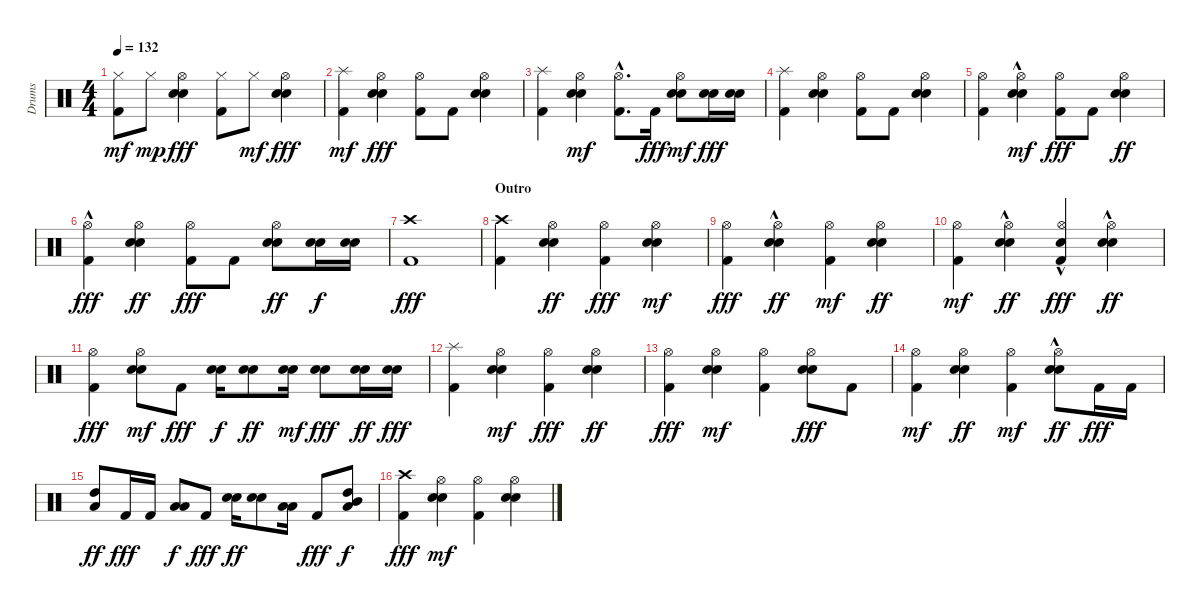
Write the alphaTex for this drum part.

\track ("Drums" "Drums") {instrument percussion}
\staff {score}
\articulation defaults
\ts (4 4)
\tempo 132
\clef neutral
\ks c
("Kick (hit) 2" "Hi-Hat (closed)").8{dy mf} "Hi-Hat (closed)".8{dy mp} ("Hi-Hat (open)" "Snare (hit) 2" "Electric Snare (hit)").4{dy fff} ("Kick (hit) 2" "Hi-Hat (closed)").8 "Hi-Hat (closed)".8{dy mf} ("Hi-Hat (open)" "Snare (hit) 2" "Electric Snare (hit)").4{dy fff} |
("Kick (hit) 2" "Splash (hit)").4{dy mf} ("Hi-Hat (open)" "Snare (hit) 2" "Electric Snare (hit)").4{dy fff} ("Hi-Hat (open)" "Kick (hit) 2").8 "Kick (hit) 2".8 ("Hi-Hat (open)" "Snare (hit) 2" "Electric Snare (hit)").4 |
("Splash (hit)" "Kick (hit) 2").4 ("Snare (hit) 2" "Hi-Hat (open)" "Electric Snare (hit)").4{dy mf} ("Kick (hit) 2"{hac} "Hi-Hat (open)"{hac}).8{d} "Kick (hit) 2".16{dy fff} ("Snare (hit) 2" "Hi-Hat (open)" "Electric Snare (hit)").8{dy mf} ("Snare (hit) 2" "Electric Snare (hit)").16{dy fff} ("Snare (hit) 2" "Electric Snare (hit)").16 |
\section ("" "")
("Splash (hit)" "Kick (hit) 2").4 ("Hi-Hat (open)" "Snare (hit) 2" "Electric Snare (hit)").4 ("Hi-Hat (open)" "Kick (hit) 2").8 "Kick (hit) 2".8 ("Hi-Hat (open)" "Snare (hit) 2" "Electric Snare (hit)").4 |
("Hi-Hat (open)" "Kick (hit) 2").4 ("Snare (hit) 2"{hac} "Hi-Hat (open)" "Electric Snare (hit)").4{dy mf} ("Hi-Hat (open)" "Kick (hit) 2").8{dy fff} "Kick (hit) 2".8 ("Hi-Hat (open)" "Snare (hit) 2" "Electric Snare (hit)").4{dy ff} |
("Hi-Hat (open)" "Kick (hit) 2"{hac}).4{dy fff} ("Hi-Hat (open)" "Snare (hit) 2" "Electric Snare (hit)").4{dy ff} ("Hi-Hat (open)" "Kick (hit) 2").8{dy fff} "Kick (hit) 2".8 ("Hi-Hat (open)" "Snare (hit) 2" "Electric Snare (hit)").8{dy ff} ("Snare (hit) 2" "Electric Snare (hit)").16{dy f} ("Snare (hit) 2" "Electric Snare (hit)").16 |
("Kick (hit) 2" "Crash high (hit)").1{dy fff} |
\section ("" "Outro")
("Crash high (hit)" "Kick (hit) 2").4 ("Hi-Hat (open)" "Snare (hit) 2" "Electric Snare (hit)").4{dy ff} ("Hi-Hat (open)" "Kick (hit) 2").4{dy fff} ("Snare (hit) 2" "Hi-Hat (open)" "Electric Snare (hit)").4{dy mf} |
("Hi-Hat (open)" "Kick (hit) 2").4{dy fff} ("Hi-Hat (open)"{hac} "Snare (hit) 2" "Electric Snare (hit)").4{dy ff} ("Kick (hit) 2" "Hi-Hat (open)").4{dy mf} ("Hi-Hat (open)" "Snare (hit) 2" "Electric Snare (hit)").4{dy ff} |
("Kick (hit) 2" "Hi-Hat (open)").4{dy mf} ("Hi-Hat (open)"{hac} "Snare (hit) 2" "Electric Snare (hit)").4{dy ff} ("Hi-Hat (open)"{hac} "Kick (hit) 2" "Electric Snare (hit)").4{dy fff} ("Hi-Hat (open)"{hac} "Snare (hit) 2" "Electric Snare (hit)").4{dy ff} |
("Hi-Hat (open)" "Kick (hit) 2").4{dy fff} ("Snare (hit) 2" "Hi-Hat (open)" "Electric Snare (hit)").8{dy mf} "Kick (hit) 2".8{dy fff} ("Snare (hit) 2" "Electric Snare (hit)").16{dy f} ("Snare (hit) 2" "Electric Snare (hit)").8{dy ff} ("Snare (hit) 2" "Electric Snare (hit)").16{dy mf} ("Snare (hit) 2" "Electric Snare (hit)").8{dy fff} ("Snare (hit) 2" "Electric Snare (hit)").16{dy ff} ("Snare (hit) 2" "Electric Snare (hit)").16{dy fff} |
("Splash (hit)" "Kick (hit) 2").4 ("Snare (hit) 2" "Hi-Hat (open)" "Electric Snare (hit)").4{dy mf} ("Hi-Hat (open)" "Kick (hit) 2").4{dy fff} ("Hi-Hat (open)" "Snare (hit) 2" "Electric Snare (hit)").4{dy ff} |
("Hi-Hat (open)" "Kick (hit) 2").4{dy fff} ("Snare (hit) 2" "Hi-Hat (open)" "Electric Snare (hit)").4{dy mf} ("Kick (hit) 2" "Hi-Hat (open)").4 ("Hi-Hat (open)" "Snare (hit) 2" "Electric Snare (hit)").8{dy fff} "Kick (hit) 2".8 |
("Kick (hit) 2" "Hi-Hat (open)").4{dy mf} ("Hi-Hat (open)" "Snare (hit) 2" "Electric Snare (hit)").4{dy ff} ("Kick (hit) 2" "Hi-Hat (open)").4{dy mf} ("Hi-Hat (open)" "Snare (hit) 2"{hac} "Electric Snare (hit)").8{dy ff} "Kick (hit) 2".16{dy fff} "Kick (hit) 2".16 |
("Low Tom (hit)" "High Tom (hit)").8{dy ff} "Kick (hit) 2".16{dy fff} "Kick (hit) 2".16 ("Low Floor Tom (hit)" "Low Tom (hit)").8{dy f} "Kick (hit) 2".8{dy fff} ("Snare (hit) 2" "Electric Snare (hit)").16{dy ff} ("Snare (hit) 2" "Electric Snare (hit)").8 ("Low Tom (hit)" "Low Floor Tom (hit)").16 "Kick (hit) 2".8{dy fff} ("Mid Tom (hit)" "High Tom (hit)" "Low Tom (hit)").8{dy f} |
("Crash high (hit)" "Kick (hit) 2").4{dy fff} ("Snare (hit) 2" "Hi-Hat (open)" "Electric Snare (hit)").4{dy mf} ("Kick (hit) 2" "Hi-Hat (open)").4 ("Snare (hit) 2" "Hi-Hat (open)" "Electric Snare (hit)").4
